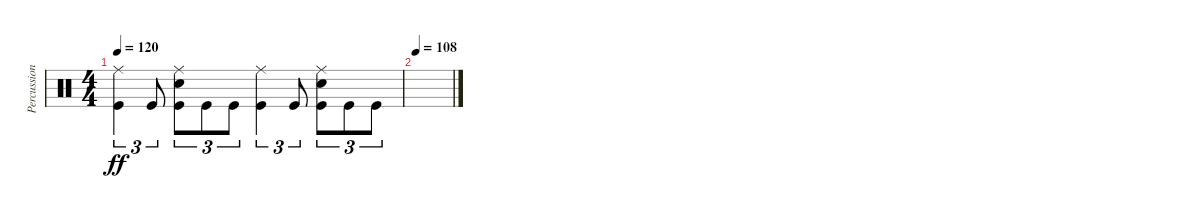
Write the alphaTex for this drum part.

\track ("Percussion" "Percussion") {instrument percussion}
\staff {score}
\articulation defaults
\ts (4 4)
\tempo 120
\clef neutral
\ks c
("Ride (middle)" "Kick (hit)").4{tu (3 2) dy ff} "Kick (hit)".8{tu (3 2)} ("Ride (middle)" "Electric Snare (hit)" "Kick (hit)").8{tu (3 2)} "Kick (hit)".8{tu (3 2)} "Kick (hit)".8{tu (3 2)} ("Ride (middle)" "Kick (hit)").4{tu (3 2)} "Kick (hit)".8{tu (3 2)} ("Ride (middle)" "Electric Snare (hit)" "Kick (hit)").8{tu (3 2)} "Kick (hit)".8{tu (3 2)} "Kick (hit)".8{tu (3 2)} |
\tempo 108
